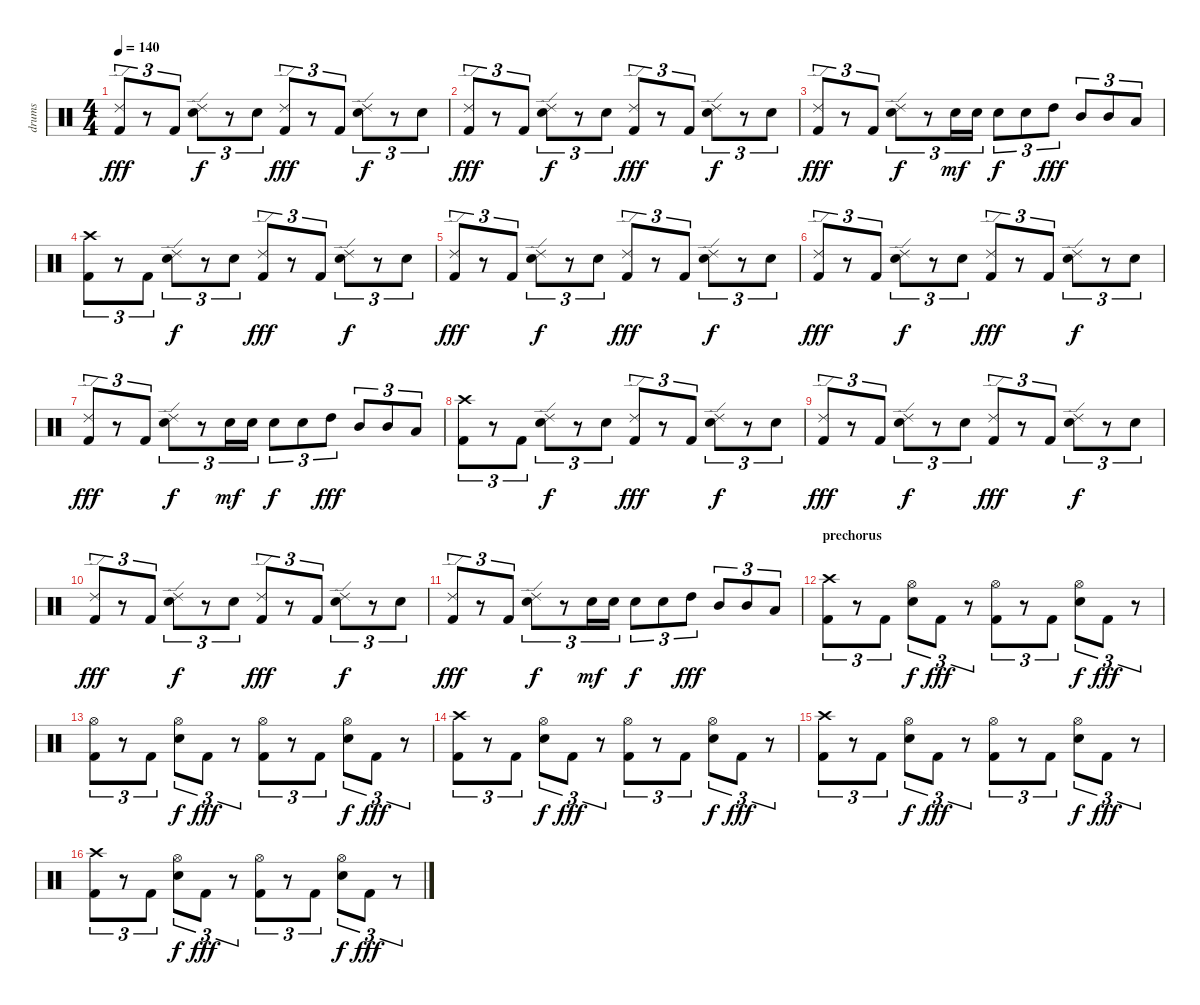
\track ("drums" "drums") {instrument percussion}
\staff {score}
\articulation defaults
\ts (4 4)
\tempo 140
\clef neutral
\ks c
("Ride (edge) 2" "Kick (hit) 2").8{tu (3 2) dy fff} r.8{tu (3 2)} "Kick (hit) 2".8{tu (3 2)} ("Ride (edge) 2" "Snare (hit) 2").8{tu (3 2) dy f} r.8{tu (3 2)} "Snare (hit) 2".8{tu (3 2)} ("Ride (edge) 2" "Kick (hit) 2").8{tu (3 2) dy fff} r.8{tu (3 2)} "Kick (hit) 2".8{tu (3 2)} ("Ride (edge) 2" "Snare (hit) 2").8{tu (3 2) dy f} r.8{tu (3 2)} "Snare (hit) 2".8{tu (3 2)} |
("Ride (edge) 2" "Kick (hit) 2").8{tu (3 2) dy fff} r.8{tu (3 2)} "Kick (hit) 2".8{tu (3 2)} ("Ride (edge) 2" "Snare (hit) 2").8{tu (3 2) dy f} r.8{tu (3 2)} "Snare (hit) 2".8{tu (3 2)} ("Ride (edge) 2" "Kick (hit) 2").8{tu (3 2) dy fff} r.8{tu (3 2)} "Kick (hit) 2".8{tu (3 2)} ("Ride (edge) 2" "Snare (hit) 2").8{tu (3 2) dy f} r.8{tu (3 2)} "Snare (hit) 2".8{tu (3 2)} |
("Ride (edge) 2" "Kick (hit) 2").8{tu (3 2) dy fff} r.8{tu (3 2)} "Kick (hit) 2".8{tu (3 2)} ("Ride (edge) 2" "Snare (hit) 2").8{tu (3 2) dy f} r.8{tu (3 2)} "Snare (hit) 2".16{tu (3 2) dy mf} "Snare (hit) 2".16{tu (3 2)} "Snare (hit) 2".8{tu (3 2) dy f} "Snare (hit) 2".8{tu (3 2)} "High Tom (hit)".8{tu (3 2) dy fff} "Mid Tom (hit)".8{tu (3 2)} "Mid Tom (hit)".8{tu (3 2)} "Low Tom (hit)".8{tu (3 2)} |
("Crash high (hit)" "Kick (hit) 2").8{tu (3 2)} r.8{tu (3 2)} "Kick (hit) 2".8{tu (3 2)} ("Ride (edge) 2" "Snare (hit) 2").8{tu (3 2) dy f} r.8{tu (3 2)} "Snare (hit) 2".8{tu (3 2)} ("Ride (edge) 2" "Kick (hit) 2").8{tu (3 2) dy fff} r.8{tu (3 2)} "Kick (hit) 2".8{tu (3 2)} ("Ride (edge) 2" "Snare (hit) 2").8{tu (3 2) dy f} r.8{tu (3 2)} "Snare (hit) 2".8{tu (3 2)} |
("Ride (edge) 2" "Kick (hit) 2").8{tu (3 2) dy fff} r.8{tu (3 2)} "Kick (hit) 2".8{tu (3 2)} ("Ride (edge) 2" "Snare (hit) 2").8{tu (3 2) dy f} r.8{tu (3 2)} "Snare (hit) 2".8{tu (3 2)} ("Ride (edge) 2" "Kick (hit) 2").8{tu (3 2) dy fff} r.8{tu (3 2)} "Kick (hit) 2".8{tu (3 2)} ("Ride (edge) 2" "Snare (hit) 2").8{tu (3 2) dy f} r.8{tu (3 2)} "Snare (hit) 2".8{tu (3 2)} |
("Ride (edge) 2" "Kick (hit) 2").8{tu (3 2) dy fff} r.8{tu (3 2)} "Kick (hit) 2".8{tu (3 2)} ("Ride (edge) 2" "Snare (hit) 2").8{tu (3 2) dy f} r.8{tu (3 2)} "Snare (hit) 2".8{tu (3 2)} ("Ride (edge) 2" "Kick (hit) 2").8{tu (3 2) dy fff} r.8{tu (3 2)} "Kick (hit) 2".8{tu (3 2)} ("Ride (edge) 2" "Snare (hit) 2").8{tu (3 2) dy f} r.8{tu (3 2)} "Snare (hit) 2".8{tu (3 2)} |
("Ride (edge) 2" "Kick (hit) 2").8{tu (3 2) dy fff} r.8{tu (3 2)} "Kick (hit) 2".8{tu (3 2)} ("Ride (edge) 2" "Snare (hit) 2").8{tu (3 2) dy f} r.8{tu (3 2)} "Snare (hit) 2".16{tu (3 2) dy mf} "Snare (hit) 2".16{tu (3 2)} "Snare (hit) 2".8{tu (3 2) dy f} "Snare (hit) 2".8{tu (3 2)} "High Tom (hit)".8{tu (3 2) dy fff} "Mid Tom (hit)".8{tu (3 2)} "Mid Tom (hit)".8{tu (3 2)} "Low Tom (hit)".8{tu (3 2)} |
("Crash high (hit)" "Kick (hit) 2").8{tu (3 2)} r.8{tu (3 2)} "Kick (hit) 2".8{tu (3 2)} ("Ride (edge) 2" "Snare (hit) 2").8{tu (3 2) dy f} r.8{tu (3 2)} "Snare (hit) 2".8{tu (3 2)} ("Ride (edge) 2" "Kick (hit) 2").8{tu (3 2) dy fff} r.8{tu (3 2)} "Kick (hit) 2".8{tu (3 2)} ("Ride (edge) 2" "Snare (hit) 2").8{tu (3 2) dy f} r.8{tu (3 2)} "Snare (hit) 2".8{tu (3 2)} |
("Ride (edge) 2" "Kick (hit) 2").8{tu (3 2) dy fff} r.8{tu (3 2)} "Kick (hit) 2".8{tu (3 2)} ("Ride (edge) 2" "Snare (hit) 2").8{tu (3 2) dy f} r.8{tu (3 2)} "Snare (hit) 2".8{tu (3 2)} ("Ride (edge) 2" "Kick (hit) 2").8{tu (3 2) dy fff} r.8{tu (3 2)} "Kick (hit) 2".8{tu (3 2)} ("Ride (edge) 2" "Snare (hit) 2").8{tu (3 2) dy f} r.8{tu (3 2)} "Snare (hit) 2".8{tu (3 2)} |
("Ride (edge) 2" "Kick (hit) 2").8{tu (3 2) dy fff} r.8{tu (3 2)} "Kick (hit) 2".8{tu (3 2)} ("Ride (edge) 2" "Snare (hit) 2").8{tu (3 2) dy f} r.8{tu (3 2)} "Snare (hit) 2".8{tu (3 2)} ("Ride (edge) 2" "Kick (hit) 2").8{tu (3 2) dy fff} r.8{tu (3 2)} "Kick (hit) 2".8{tu (3 2)} ("Ride (edge) 2" "Snare (hit) 2").8{tu (3 2) dy f} r.8{tu (3 2)} "Snare (hit) 2".8{tu (3 2)} |
("Ride (edge) 2" "Kick (hit) 2").8{tu (3 2) dy fff} r.8{tu (3 2)} "Kick (hit) 2".8{tu (3 2)} ("Ride (edge) 2" "Snare (hit) 2").8{tu (3 2) dy f} r.8{tu (3 2)} "Snare (hit) 2".16{tu (3 2) dy mf} "Snare (hit) 2".16{tu (3 2)} "Snare (hit) 2".8{tu (3 2) dy f} "Snare (hit) 2".8{tu (3 2)} "High Tom (hit)".8{tu (3 2) dy fff} "Mid Tom (hit)".8{tu (3 2)} "Mid Tom (hit)".8{tu (3 2)} "Low Tom (hit)".8{tu (3 2)} |
\section ("" "prechorus")
("Crash high (hit)" "Kick (hit) 2").8{tu (3 2)} r.8{tu (3 2)} "Kick (hit) 2".8{tu (3 2)} ("Hi-Hat (open)" "Snare (hit) 2").8{tu (3 2) dy f} "Kick (hit) 2".8{tu (3 2) dy fff} r.8{tu (3 2)} ("Hi-Hat (open)" "Kick (hit) 2").8{tu (3 2)} r.8{tu (3 2)} "Kick (hit) 2".8{tu (3 2)} ("Hi-Hat (open)" "Snare (hit) 2").8{tu (3 2) dy f} "Kick (hit) 2".8{tu (3 2) dy fff} r.8{tu (3 2)} |
("Hi-Hat (open)" "Kick (hit) 2").8{tu (3 2)} r.8{tu (3 2)} "Kick (hit) 2".8{tu (3 2)} ("Hi-Hat (open)" "Snare (hit) 2").8{tu (3 2) dy f} "Kick (hit) 2".8{tu (3 2) dy fff} r.8{tu (3 2)} ("Hi-Hat (open)" "Kick (hit) 2").8{tu (3 2)} r.8{tu (3 2)} "Kick (hit) 2".8{tu (3 2)} ("Hi-Hat (open)" "Snare (hit) 2").8{tu (3 2) dy f} "Kick (hit) 2".8{tu (3 2) dy fff} r.8{tu (3 2)} |
("Crash high (hit)" "Kick (hit) 2").8{tu (3 2)} r.8{tu (3 2)} "Kick (hit) 2".8{tu (3 2)} ("Hi-Hat (open)" "Snare (hit) 2").8{tu (3 2) dy f} "Kick (hit) 2".8{tu (3 2) dy fff} r.8{tu (3 2)} ("Hi-Hat (open)" "Kick (hit) 2").8{tu (3 2)} r.8{tu (3 2)} "Kick (hit) 2".8{tu (3 2)} ("Hi-Hat (open)" "Snare (hit) 2").8{tu (3 2) dy f} "Kick (hit) 2".8{tu (3 2) dy fff} r.8{tu (3 2)} |
("Crash high (hit)" "Kick (hit) 2").8{tu (3 2)} r.8{tu (3 2)} "Kick (hit) 2".8{tu (3 2)} ("Hi-Hat (open)" "Snare (hit) 2").8{tu (3 2) dy f} "Kick (hit) 2".8{tu (3 2) dy fff} r.8{tu (3 2)} ("Hi-Hat (open)" "Kick (hit) 2").8{tu (3 2)} r.8{tu (3 2)} "Kick (hit) 2".8{tu (3 2)} ("Hi-Hat (open)" "Snare (hit) 2").8{tu (3 2) dy f} "Kick (hit) 2".8{tu (3 2) dy fff} r.8{tu (3 2)} |
("Crash high (hit)" "Kick (hit) 2").8{tu (3 2)} r.8{tu (3 2)} "Kick (hit) 2".8{tu (3 2)} ("Hi-Hat (open)" "Snare (hit) 2").8{tu (3 2) dy f} "Kick (hit) 2".8{tu (3 2) dy fff} r.8{tu (3 2)} ("Hi-Hat (open)" "Kick (hit) 2").8{tu (3 2)} r.8{tu (3 2)} "Kick (hit) 2".8{tu (3 2)} ("Hi-Hat (open)" "Snare (hit) 2").8{tu (3 2) dy f} "Kick (hit) 2".8{tu (3 2) dy fff} r.8{tu (3 2)}
